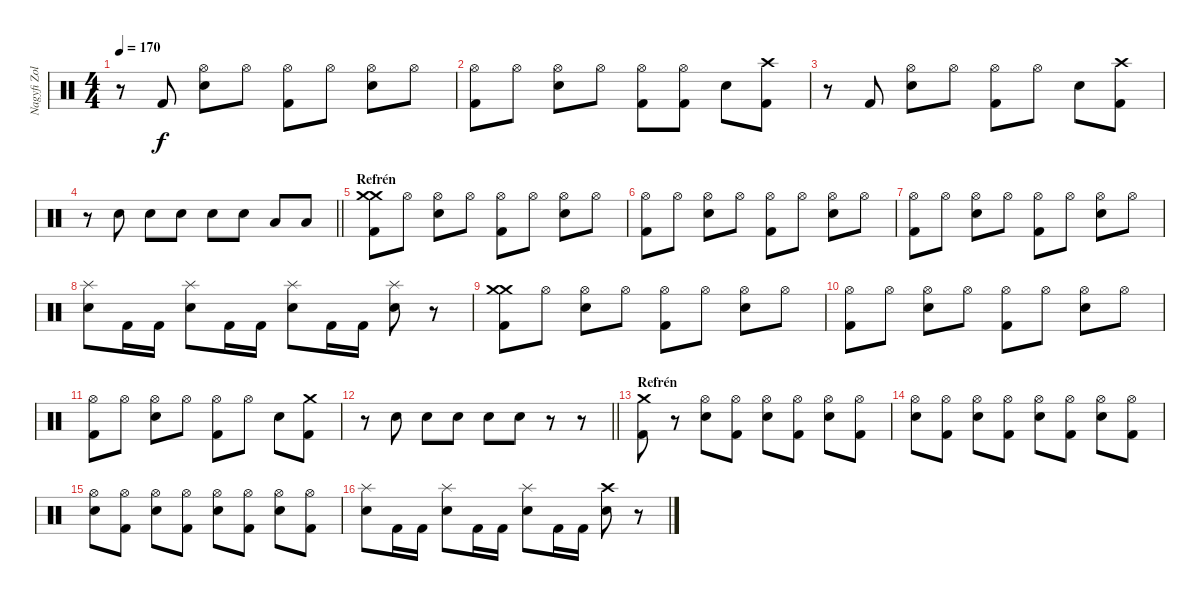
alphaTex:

\track ("Nagyfi Zoltán - Dob" "Nagyfi Zol") {instrument percussion}
\staff {score}
\articulation defaults
\ts (4 4)
\tempo 170
\clef neutral
\ks c
r.8{dy f} "Kick (hit) 2".8 ("Hi-Hat (open)" "Electric Snare (hit)").8 "Hi-Hat (open)".8 ("Hi-Hat (open)" "Kick (hit) 2").8 "Hi-Hat (open)".8 ("Hi-Hat (open)" "Electric Snare (hit)").8 "Hi-Hat (open)".8 |
("Hi-Hat (open)" "Kick (hit) 2").8 "Hi-Hat (open)".8 ("Hi-Hat (open)" "Electric Snare (hit)").8 "Hi-Hat (open)".8 ("Hi-Hat (open)" "Kick (hit) 2").8 ("Hi-Hat (open)" "Kick (hit) 2").8 "Electric Snare (hit)".8 ("Crash high (hit)" "Kick (hit) 2").8 |
r.8 "Kick (hit) 2".8 ("Hi-Hat (open)" "Electric Snare (hit)").8 "Hi-Hat (open)".8 ("Hi-Hat (open)" "Kick (hit) 2").8 "Hi-Hat (open)".8 "Electric Snare (hit)".8 ("Crash high (hit)" "Kick (hit) 2").8 |
\barLineRight lightlight
r.8 "Electric Snare (hit)".8 "Electric Snare (hit)".8 "Electric Snare (hit)".8 "Electric Snare (hit)".8 "Electric Snare (hit)".8 "Low Floor Tom (hit)".8 "Low Floor Tom (hit)".8 |
\section ("" "Refrén")
("Crash medium (hit)" "Crash medium (hit)" "Kick (hit) 2").8 "Hi-Hat (open)".8 ("Hi-Hat (open)" "Electric Snare (hit)").8 "Hi-Hat (open)".8 ("Hi-Hat (open)" "Kick (hit) 2").8 "Hi-Hat (open)".8 ("Hi-Hat (open)" "Electric Snare (hit)").8 "Hi-Hat (open)".8 |
("Hi-Hat (open)" "Kick (hit) 2").8 "Hi-Hat (open)".8 ("Hi-Hat (open)" "Electric Snare (hit)").8 "Hi-Hat (open)".8 ("Hi-Hat (open)" "Kick (hit) 2").8 "Hi-Hat (open)".8 ("Hi-Hat (open)" "Electric Snare (hit)").8 "Hi-Hat (open)".8 |
("Hi-Hat (open)" "Kick (hit) 2").8 "Hi-Hat (open)".8 ("Hi-Hat (open)" "Electric Snare (hit)").8 "Hi-Hat (open)".8 ("Hi-Hat (open)" "Kick (hit) 2").8 "Hi-Hat (open)".8 ("Hi-Hat (open)" "Electric Snare (hit)").8 "Hi-Hat (open)".8 |
("Splash (hit)" "Electric Snare (hit)").8 "Kick (hit) 2".16 "Kick (hit) 2".16 ("Splash (hit)" "Electric Snare (hit)").8 "Kick (hit) 2".16 "Kick (hit) 2".16 ("Splash (hit)" "Electric Snare (hit)").8 "Kick (hit) 2".16 "Kick (hit) 2".16 ("Splash (hit)" "Electric Snare (hit)").8 r.8 |
("Crash medium (hit)" "Crash medium (hit)" "Kick (hit) 2").8 "Hi-Hat (open)".8 ("Hi-Hat (open)" "Electric Snare (hit)").8 "Hi-Hat (open)".8 ("Hi-Hat (open)" "Kick (hit) 2").8 "Hi-Hat (open)".8 ("Hi-Hat (open)" "Electric Snare (hit)").8 "Hi-Hat (open)".8 |
("Hi-Hat (open)" "Kick (hit) 2").8 "Hi-Hat (open)".8 ("Hi-Hat (open)" "Electric Snare (hit)").8 "Hi-Hat (open)".8 ("Hi-Hat (open)" "Kick (hit) 2").8 "Hi-Hat (open)".8 ("Hi-Hat (open)" "Electric Snare (hit)").8 "Hi-Hat (open)".8 |
("Hi-Hat (open)" "Kick (hit) 2").8 "Hi-Hat (open)".8 ("Hi-Hat (open)" "Electric Snare (hit)").8 "Hi-Hat (open)".8 ("Hi-Hat (open)" "Kick (hit) 2").8 "Hi-Hat (open)".8 "Electric Snare (hit)".8 ("Crash medium (hit)" "Kick (hit) 2").8 |
\barLineRight lightlight
r.8 "Electric Snare (hit)".8 "Electric Snare (hit)".8 "Electric Snare (hit)".8 "Electric Snare (hit)".8 "Electric Snare (hit)".8 r.8 r.8 |
\section ("" "Refrén")
("Crash medium (hit)" "Kick (hit) 2").8 r.8 ("Hi-Hat (open)" "Electric Snare (hit)").8 ("Hi-Hat (open)" "Kick (hit) 2").8 ("Hi-Hat (open)" "Electric Snare (hit)").8 ("Hi-Hat (open)" "Kick (hit) 2").8 ("Hi-Hat (open)" "Electric Snare (hit)").8 ("Hi-Hat (open)" "Kick (hit) 2").8 |
("Hi-Hat (open)" "Electric Snare (hit)").8 ("Hi-Hat (open)" "Kick (hit) 2").8 ("Hi-Hat (open)" "Electric Snare (hit)").8 ("Hi-Hat (open)" "Kick (hit) 2").8 ("Hi-Hat (open)" "Electric Snare (hit)").8 ("Hi-Hat (open)" "Kick (hit) 2").8 ("Hi-Hat (open)" "Electric Snare (hit)").8 ("Hi-Hat (open)" "Kick (hit) 2").8 |
("Hi-Hat (open)" "Electric Snare (hit)").8 ("Hi-Hat (open)" "Kick (hit) 2").8 ("Hi-Hat (open)" "Electric Snare (hit)").8 ("Hi-Hat (open)" "Kick (hit) 2").8 ("Hi-Hat (open)" "Electric Snare (hit)").8 ("Hi-Hat (open)" "Kick (hit) 2").8 ("Hi-Hat (open)" "Electric Snare (hit)").8 ("Hi-Hat (open)" "Kick (hit) 2").8 |
("Splash (hit)" "Electric Snare (hit)").8 "Kick (hit) 2".16 "Kick (hit) 2".16 ("Splash (hit)" "Electric Snare (hit)").8 "Kick (hit) 2".16 "Kick (hit) 2".16 ("Splash (hit)" "Electric Snare (hit)").8 "Kick (hit) 2".16 "Kick (hit) 2".16 ("Crash high (hit)" "Electric Snare (hit)").8 r.8
